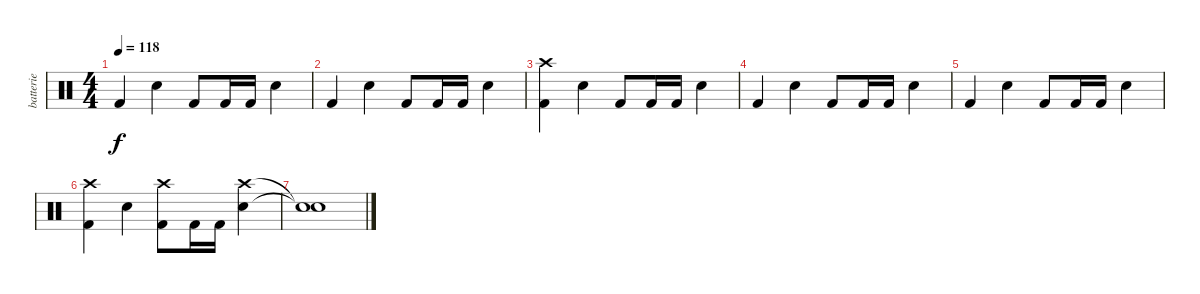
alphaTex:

\track ("batterie" "batterie") {instrument percussion}
\staff {score}
\articulation defaults
\ts (4 4)
\tempo 118
\clef neutral
\ks c "Kick (hit) 2".4{dy f} "Electric Snare (hit)".4 "Kick (hit) 2".8 "Kick (hit) 2".16 "Kick (hit) 2".16 "Electric Snare (hit)".4
|
"Kick (hit) 2".4 "Electric Snare (hit)".4 "Kick (hit) 2".8 "Kick (hit) 2".16 "Kick (hit) 2".16 "Electric Snare (hit)".4 |
("Crash high (hit)" "Kick (hit) 2").4 "Electric Snare (hit)".4 "Kick (hit) 2".8 "Kick (hit) 2".16 "Kick (hit) 2".16 "Electric Snare (hit)".4 |
"Kick (hit) 2".4 "Electric Snare (hit)".4 "Kick (hit) 2".8 "Kick (hit) 2".16 "Kick (hit) 2".16 "Electric Snare (hit)".4 |
"Kick (hit) 2".4 "Electric Snare (hit)".4 "Kick (hit) 2".8 "Kick (hit) 2".16 "Kick (hit) 2".16 "Electric Snare (hit)".4 |
("Crash high (hit)" "Kick (hit) 2").4 "Electric Snare (hit)".4 ("Crash high (hit)" "Kick (hit) 2").8 "Kick (hit) 2".16 "Kick (hit) 2".16 ("Crash high (hit)" "Electric Snare (hit)").4 |
("Snare (hit)"{t} "Snare (hit)"{t}).1
